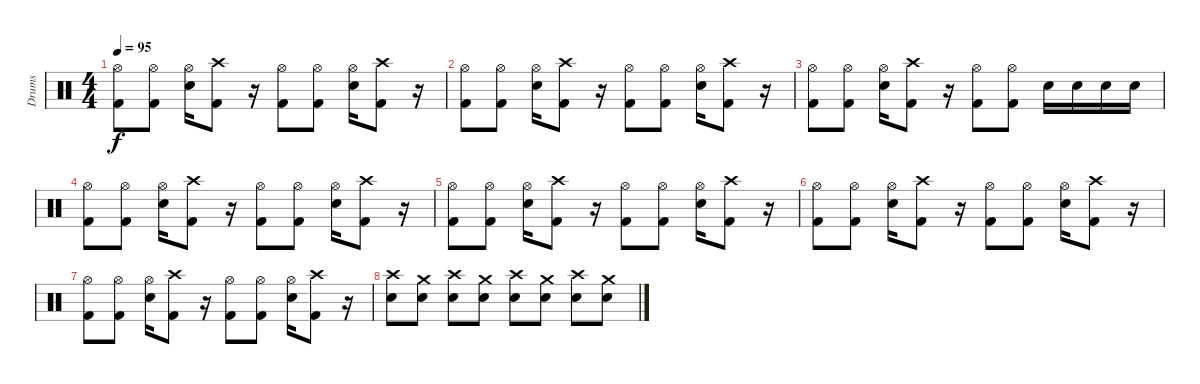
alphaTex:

\track ("Drums" "Drums") {instrument percussion}
\staff {score}
\articulation defaults
\ts (4 4)
\tempo 95
\clef neutral
\ks c
("Hi-Hat (open)" "Kick (hit) 2").8{dy f} ("Hi-Hat (open)" "Kick (hit) 2").8 ("Hi-Hat (open)" "Electric Snare (hit)").16 ("Crash high (hit)" "Kick (hit) 2").8 r.16 ("Hi-Hat (open)" "Kick (hit) 2").8 ("Hi-Hat (open)" "Kick (hit) 2").8 ("Hi-Hat (open)" "Electric Snare (hit)").16 ("Crash high (hit)" "Kick (hit) 2").8 r.16 |
("Hi-Hat (open)" "Kick (hit) 2").8 ("Hi-Hat (open)" "Kick (hit) 2").8 ("Hi-Hat (open)" "Electric Snare (hit)").16 ("Crash high (hit)" "Kick (hit) 2").8 r.16 ("Hi-Hat (open)" "Kick (hit) 2").8 ("Hi-Hat (open)" "Kick (hit) 2").8 ("Hi-Hat (open)" "Electric Snare (hit)").16 ("Crash high (hit)" "Kick (hit) 2").8 r.16 |
("Hi-Hat (open)" "Kick (hit) 2").8 ("Hi-Hat (open)" "Kick (hit) 2").8 ("Hi-Hat (open)" "Electric Snare (hit)").16 ("Crash high (hit)" "Kick (hit) 2").8 r.16 ("Hi-Hat (open)" "Kick (hit) 2").8 ("Hi-Hat (open)" "Kick (hit) 2").8 "Electric Snare (hit)".16 "Electric Snare (hit)".16 "Electric Snare (hit)".16 "Electric Snare (hit)".16 |
("Hi-Hat (open)" "Kick (hit) 2").8 ("Hi-Hat (open)" "Kick (hit) 2").8 ("Hi-Hat (open)" "Electric Snare (hit)").16 ("Crash high (hit)" "Kick (hit) 2").8 r.16 ("Hi-Hat (open)" "Kick (hit) 2").8 ("Hi-Hat (open)" "Kick (hit) 2").8 ("Hi-Hat (open)" "Electric Snare (hit)").16 ("Crash high (hit)" "Kick (hit) 2").8 r.16 |
("Hi-Hat (open)" "Kick (hit) 2").8 ("Hi-Hat (open)" "Kick (hit) 2").8 ("Hi-Hat (open)" "Electric Snare (hit)").16 ("Crash high (hit)" "Kick (hit) 2").8 r.16 ("Hi-Hat (open)" "Kick (hit) 2").8 ("Hi-Hat (open)" "Kick (hit) 2").8 ("Hi-Hat (open)" "Electric Snare (hit)").16 ("Crash high (hit)" "Kick (hit) 2").8 r.16 |
("Hi-Hat (open)" "Kick (hit) 2").8 ("Hi-Hat (open)" "Kick (hit) 2").8 ("Hi-Hat (open)" "Electric Snare (hit)").16 ("Crash high (hit)" "Kick (hit) 2").8 r.16 ("Hi-Hat (open)" "Kick (hit) 2").8 ("Hi-Hat (open)" "Kick (hit) 2").8 ("Hi-Hat (open)" "Electric Snare (hit)").16 ("Crash high (hit)" "Kick (hit) 2").8 r.16 |
("Hi-Hat (open)" "Kick (hit) 2").8 ("Hi-Hat (open)" "Kick (hit) 2").8 ("Hi-Hat (open)" "Electric Snare (hit)").16 ("Crash high (hit)" "Kick (hit) 2").8 r.16 ("Hi-Hat (open)" "Kick (hit) 2").8 ("Hi-Hat (open)" "Kick (hit) 2").8 ("Hi-Hat (open)" "Electric Snare (hit)").16 ("Crash high (hit)" "Kick (hit) 2").8 r.16 |
("Crash high (hit)" "Electric Snare (hit)").8 ("Crash medium (hit)" "Electric Snare (hit)").8 ("Crash high (hit)" "Electric Snare (hit)").8 ("Crash medium (hit)" "Electric Snare (hit)").8 ("Crash high (hit)" "Electric Snare (hit)").8 ("Crash medium (hit)" "Electric Snare (hit)").8 ("Crash high (hit)" "Electric Snare (hit)").8 ("Crash medium (hit)" "Electric Snare (hit)").8
